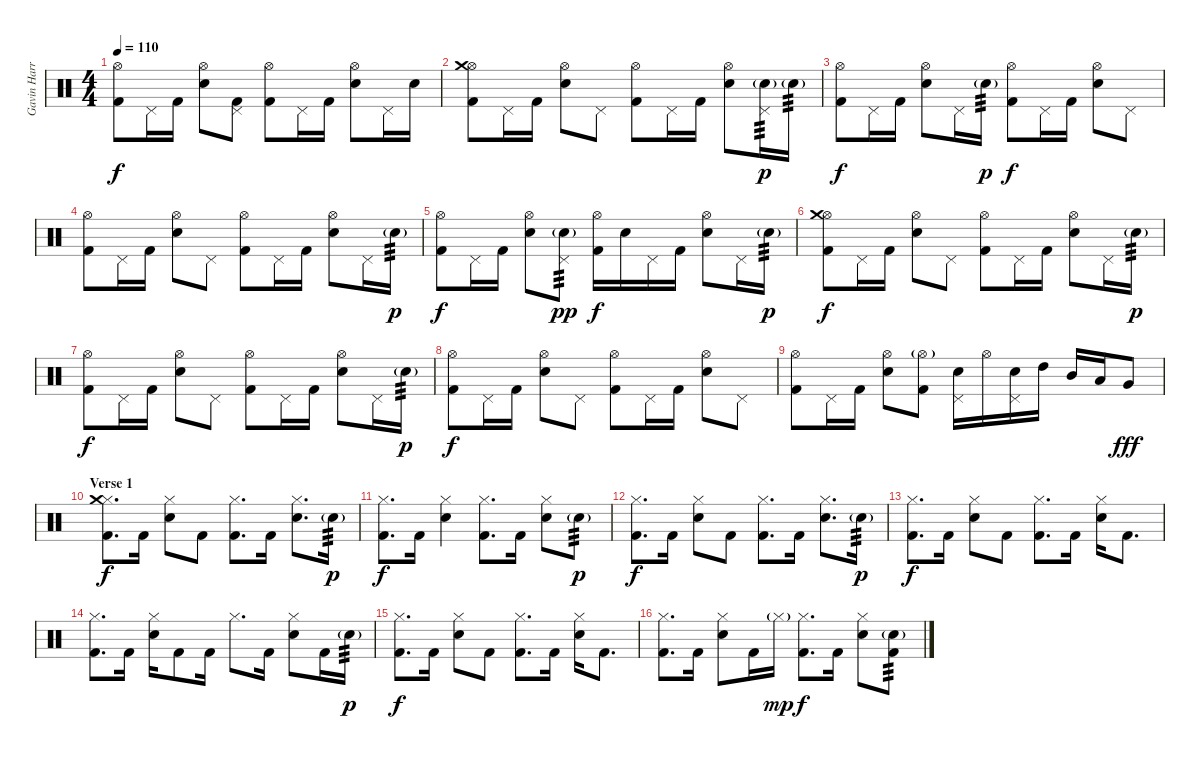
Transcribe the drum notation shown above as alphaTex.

\track ("Gavin Harrison - Drums" "Gavin Harr") {instrument percussion}
\staff {score}
\articulation defaults
\ts (4 4)
\tempo 110
\clef neutral
\ks c
("Hi-Hat (open)" "Kick (hit) 2").8{dy f} "Pedal Hi-Hat (hit)".16 "Kick (hit) 2".16 ("Hi-Hat (open)" "Electric Snare (hit)").8 ("Pedal Hi-Hat (hit)" "Kick (hit) 2").8 ("Hi-Hat (open)" "Kick (hit) 2").8 "Pedal Hi-Hat (hit)".16 "Kick (hit) 2".16 ("Hi-Hat (open)" "Electric Snare (hit)").8 "Pedal Hi-Hat (hit)".16 "Electric Snare (hit)".16 |
("Hi-Hat (open)" "Crash medium (hit)" "Kick (hit) 2").8 "Pedal Hi-Hat (hit)".16 "Kick (hit) 2".16 ("Hi-Hat (open)" "Electric Snare (hit)").8 "Pedal Hi-Hat (hit)".8 ("Hi-Hat (open)" "Kick (hit) 2").8 "Pedal Hi-Hat (hit)".16 "Kick (hit) 2".16 ("Hi-Hat (open)" "Electric Snare (hit)").8 ("Pedal Hi-Hat (hit)" "Electric Snare (hit)"{g}).16{tp 3 dy p} "Electric Snare (hit)"{g}.16{tp 3} |
("Hi-Hat (open)" "Kick (hit) 2").8{dy f} "Pedal Hi-Hat (hit)".16 "Kick (hit) 2".16 ("Hi-Hat (open)" "Electric Snare (hit)").8 "Pedal Hi-Hat (hit)".16 "Electric Snare (hit)"{g}.16{tp 3 dy p} ("Hi-Hat (open)" "Kick (hit) 2").8{dy f} "Pedal Hi-Hat (hit)".16 "Kick (hit) 2".16 ("Hi-Hat (open)" "Electric Snare (hit)").8 "Pedal Hi-Hat (hit)".8 |
("Hi-Hat (open)" "Kick (hit) 2").8 "Pedal Hi-Hat (hit)".16 "Kick (hit) 2".16 ("Hi-Hat (open)" "Electric Snare (hit)").8 "Pedal Hi-Hat (hit)".8 ("Hi-Hat (open)" "Kick (hit) 2").8 "Pedal Hi-Hat (hit)".16 "Kick (hit) 2".16 ("Hi-Hat (open)" "Electric Snare (hit)").8 "Pedal Hi-Hat (hit)".16 "Electric Snare (hit)"{g}.16{tp 3 dy p} |
("Hi-Hat (open)" "Kick (hit) 2").8{dy f} "Pedal Hi-Hat (hit)".16 "Kick (hit) 2".16 ("Hi-Hat (open)" "Electric Snare (hit)").8 ("Pedal Hi-Hat (hit)" "Electric Snare (hit)"{g}).8{tp 3 dy pp} ("Hi-Hat (open)" "Kick (hit) 2").16{dy f} "Electric Snare (hit)".16 "Pedal Hi-Hat (hit)".16 "Kick (hit) 2".16 ("Hi-Hat (open)" "Electric Snare (hit)").8 "Pedal Hi-Hat (hit)".16 "Electric Snare (hit)"{g}.16{tp 3 dy p} |
("Hi-Hat (open)" "Crash medium (hit)" "Kick (hit) 2").8{dy f} "Pedal Hi-Hat (hit)".16 "Kick (hit) 2".16 ("Hi-Hat (open)" "Electric Snare (hit)").8 "Pedal Hi-Hat (hit)".8 ("Hi-Hat (open)" "Kick (hit) 2").8 "Pedal Hi-Hat (hit)".16 "Kick (hit) 2".16 ("Hi-Hat (open)" "Electric Snare (hit)").8 "Pedal Hi-Hat (hit)".16 "Electric Snare (hit)"{g}.16{tp 3 dy p} |
("Hi-Hat (open)" "Kick (hit) 2").8{dy f} "Pedal Hi-Hat (hit)".16 "Kick (hit) 2".16 ("Hi-Hat (open)" "Electric Snare (hit)").8 "Pedal Hi-Hat (hit)".8 ("Hi-Hat (open)" "Kick (hit) 2").8 "Pedal Hi-Hat (hit)".16 "Kick (hit) 2".16 ("Hi-Hat (open)" "Electric Snare (hit)").8 "Pedal Hi-Hat (hit)".16 "Electric Snare (hit)"{g}.16{tp 3 dy p} |
("Hi-Hat (open)" "Kick (hit) 2").8{dy f} "Pedal Hi-Hat (hit)".16 "Kick (hit) 2".16 ("Hi-Hat (open)" "Electric Snare (hit)").8 "Pedal Hi-Hat (hit)".8 ("Hi-Hat (open)" "Kick (hit) 2").8 "Pedal Hi-Hat (hit)".16 "Kick (hit) 2".16 ("Hi-Hat (open)" "Electric Snare (hit)").8 "Pedal Hi-Hat (hit)".8 |
("Hi-Hat (open)" "Kick (hit) 2").8 "Pedal Hi-Hat (hit)".16 "Kick (hit) 2".16 ("Hi-Hat (open)" "Electric Snare (hit)").8 ("Hi-Hat (open)"{g} "Kick (hit) 2").8 ("Pedal Hi-Hat (hit)" "Electric Snare (hit)").16 "Hi-Hat (open)".16 ("Pedal Hi-Hat (hit)" "Electric Snare (hit)").16 "High Tom (hit)".16 "Mid Tom (hit)".16 "Low Tom (hit)".16 "Very Low Tom (hit)".8{dy fff} |
\section ("" "Verse 1")
("Hi-Hat (closed)" "Crash medium (hit)" "Kick (hit) 2").8{d dy f} "Kick (hit) 2".16 ("Hi-Hat (closed)" "Electric Snare (hit)").8 "Kick (hit) 2".8 ("Hi-Hat (closed)" "Kick (hit) 2").8{d} "Kick (hit) 2".16 ("Hi-Hat (closed)" "Electric Snare (hit)").8{d} "Electric Snare (hit)"{g}.16{tp 3 dy p} |
("Hi-Hat (closed)" "Kick (hit) 2").8{d dy f} "Kick (hit) 2".16 ("Hi-Hat (closed)" "Electric Snare (hit)").4 ("Hi-Hat (closed)" "Kick (hit) 2").8{d} "Kick (hit) 2".16 ("Hi-Hat (closed)" "Electric Snare (hit)").8 "Electric Snare (hit)"{g}.8{tp 3 dy p} |
("Hi-Hat (closed)" "Kick (hit) 2").8{d dy f} "Kick (hit) 2".16 ("Hi-Hat (closed)" "Electric Snare (hit)").8 "Kick (hit) 2".8 ("Hi-Hat (closed)" "Kick (hit) 2").8{d} "Kick (hit) 2".16 ("Hi-Hat (closed)" "Electric Snare (hit)").8{d} "Electric Snare (hit)"{g}.16{tp 3 dy p} |
("Hi-Hat (closed)" "Kick (hit) 2").8{d dy f} "Kick (hit) 2".16 ("Hi-Hat (closed)" "Electric Snare (hit)").8 "Kick (hit) 2".8 ("Hi-Hat (closed)" "Kick (hit) 2").8{d} "Kick (hit) 2".16 ("Hi-Hat (closed)" "Electric Snare (hit)").16 "Kick (hit) 2".8{d} |
("Hi-Hat (closed)" "Kick (hit) 2").8{d} "Kick (hit) 2".16 ("Hi-Hat (closed)" "Electric Snare (hit)").16 "Kick (hit) 2".8 "Kick (hit) 2".16 "Hi-Hat (closed)".8{d} "Kick (hit) 2".16 ("Hi-Hat (closed)" "Electric Snare (hit)").8 "Kick (hit) 2".16 "Electric Snare (hit)"{g}.16{tp 3 dy p} |
("Hi-Hat (closed)" "Kick (hit) 2").8{d dy f} "Kick (hit) 2".16 ("Hi-Hat (closed)" "Electric Snare (hit)").8 "Kick (hit) 2".8 ("Hi-Hat (closed)" "Kick (hit) 2").8{d} "Kick (hit) 2".16 ("Hi-Hat (closed)" "Electric Snare (hit)").16 "Kick (hit) 2".8{d} |
("Hi-Hat (closed)" "Kick (hit) 2").8{d} "Kick (hit) 2".16 ("Hi-Hat (closed)" "Electric Snare (hit)").8 "Kick (hit) 2".16 "Hi-Hat (closed)"{g}.16{dy mp} ("Hi-Hat (closed)" "Kick (hit) 2").8{d dy f} "Kick (hit) 2".16 ("Hi-Hat (closed)" "Electric Snare (hit)").8 ("Electric Snare (hit)"{g} "Kick (hit) 2").8{tp 3}
